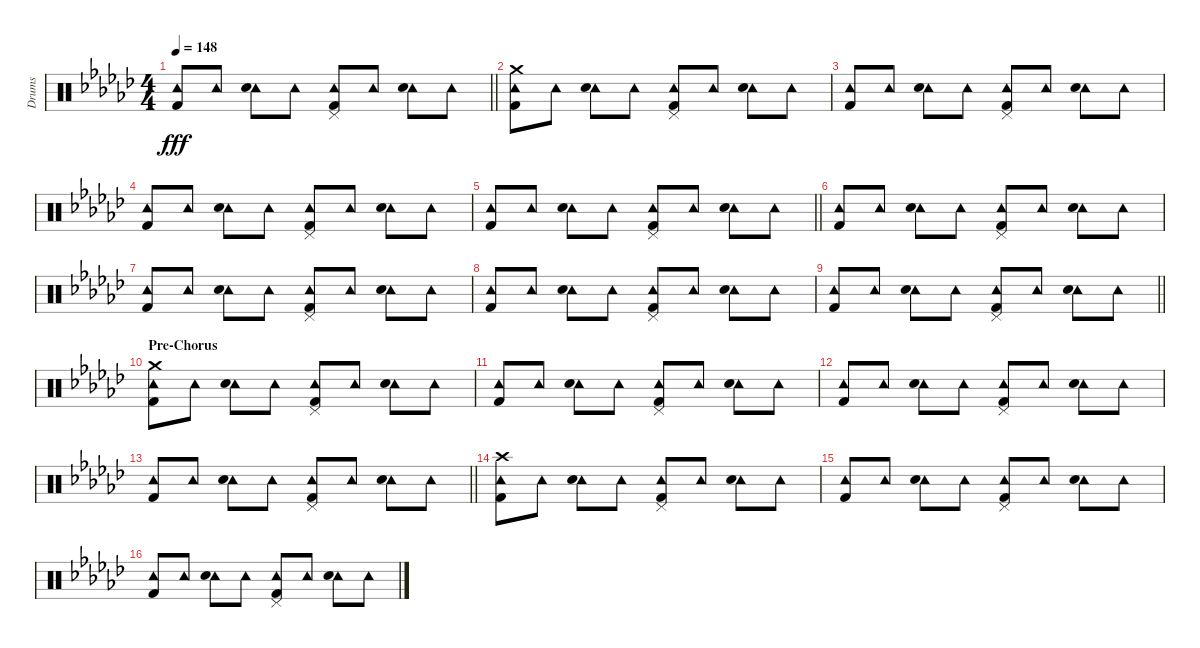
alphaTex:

\track ("Drums" "Drums") {instrument percussion}
\staff {score}
\articulation defaults
\ts (4 4)
\tempo 148
\clef neutral
\barLineRight lightlight
\ks gb
("Tambourine (hit)" "Kick (hit) 2").8{dy fff} "Tambourine (hit)".8 ("Tambourine (hit)" "Electric Snare (hit)").8 "Tambourine (hit)".8 ("Pedal Hi-Hat (hit)" "Tambourine (hit)" "Kick (hit) 2").8 "Tambourine (hit)".8 ("Tambourine (hit)" "Electric Snare (hit)").8 "Tambourine (hit)".8 |
("Crash medium (hit)" "Tambourine (hit)" "Kick (hit) 2").8 "Tambourine (hit)".8 ("Tambourine (hit)" "Electric Snare (hit)").8 "Tambourine (hit)".8 ("Pedal Hi-Hat (hit)" "Tambourine (hit)" "Kick (hit) 2").8 "Tambourine (hit)".8 ("Tambourine (hit)" "Electric Snare (hit)").8 "Tambourine (hit)".8 |
("Tambourine (hit)" "Kick (hit) 2").8 "Tambourine (hit)".8 ("Tambourine (hit)" "Electric Snare (hit)").8 "Tambourine (hit)".8 ("Pedal Hi-Hat (hit)" "Tambourine (hit)" "Kick (hit) 2").8 "Tambourine (hit)".8 ("Tambourine (hit)" "Electric Snare (hit)").8 "Tambourine (hit)".8 |
("Tambourine (hit)" "Kick (hit) 2").8 "Tambourine (hit)".8 ("Tambourine (hit)" "Electric Snare (hit)").8 "Tambourine (hit)".8 ("Pedal Hi-Hat (hit)" "Tambourine (hit)" "Kick (hit) 2").8 "Tambourine (hit)".8 ("Tambourine (hit)" "Electric Snare (hit)").8 "Tambourine (hit)".8 |
\barLineRight lightlight
("Tambourine (hit)" "Kick (hit) 2").8 "Tambourine (hit)".8 ("Tambourine (hit)" "Electric Snare (hit)").8 "Tambourine (hit)".8 ("Pedal Hi-Hat (hit)" "Tambourine (hit)" "Kick (hit) 2").8 "Tambourine (hit)".8 ("Tambourine (hit)" "Electric Snare (hit)").8 "Tambourine (hit)".8 |
("Tambourine (hit)" "Kick (hit) 2").8 "Tambourine (hit)".8 ("Tambourine (hit)" "Electric Snare (hit)").8 "Tambourine (hit)".8 ("Pedal Hi-Hat (hit)" "Tambourine (hit)" "Kick (hit) 2").8 "Tambourine (hit)".8 ("Tambourine (hit)" "Electric Snare (hit)").8 "Tambourine (hit)".8 |
("Tambourine (hit)" "Kick (hit) 2").8 "Tambourine (hit)".8 ("Tambourine (hit)" "Electric Snare (hit)").8 "Tambourine (hit)".8 ("Pedal Hi-Hat (hit)" "Tambourine (hit)" "Kick (hit) 2").8 "Tambourine (hit)".8 ("Tambourine (hit)" "Electric Snare (hit)").8 "Tambourine (hit)".8 |
("Tambourine (hit)" "Kick (hit) 2").8 "Tambourine (hit)".8 ("Tambourine (hit)" "Electric Snare (hit)").8 "Tambourine (hit)".8 ("Pedal Hi-Hat (hit)" "Tambourine (hit)" "Kick (hit) 2").8 "Tambourine (hit)".8 ("Tambourine (hit)" "Electric Snare (hit)").8 "Tambourine (hit)".8 |
\barLineRight lightlight
("Tambourine (hit)" "Kick (hit) 2").8 "Tambourine (hit)".8 ("Tambourine (hit)" "Electric Snare (hit)").8 "Tambourine (hit)".8 ("Pedal Hi-Hat (hit)" "Tambourine (hit)" "Kick (hit) 2").8 "Tambourine (hit)".8 ("Tambourine (hit)" "Electric Snare (hit)").8 "Tambourine (hit)".8 |
\section ("" "Pre-Chorus")
("Crash medium (hit)" "Tambourine (hit)" "Kick (hit) 2").8 "Tambourine (hit)".8 ("Tambourine (hit)" "Electric Snare (hit)").8 "Tambourine (hit)".8 ("Pedal Hi-Hat (hit)" "Tambourine (hit)" "Kick (hit) 2").8 "Tambourine (hit)".8 ("Tambourine (hit)" "Electric Snare (hit)").8 "Tambourine (hit)".8 |
("Tambourine (hit)" "Kick (hit) 2").8 "Tambourine (hit)".8 ("Tambourine (hit)" "Electric Snare (hit)").8 "Tambourine (hit)".8 ("Pedal Hi-Hat (hit)" "Tambourine (hit)" "Kick (hit) 2").8 "Tambourine (hit)".8 ("Tambourine (hit)" "Electric Snare (hit)").8 "Tambourine (hit)".8 |
("Tambourine (hit)" "Kick (hit) 2").8 "Tambourine (hit)".8 ("Tambourine (hit)" "Electric Snare (hit)").8 "Tambourine (hit)".8 ("Pedal Hi-Hat (hit)" "Tambourine (hit)" "Kick (hit) 2").8 "Tambourine (hit)".8 ("Tambourine (hit)" "Electric Snare (hit)").8 "Tambourine (hit)".8 |
\barLineRight lightlight
("Tambourine (hit)" "Kick (hit) 2").8 "Tambourine (hit)".8 ("Tambourine (hit)" "Electric Snare (hit)").8 "Tambourine (hit)".8 ("Pedal Hi-Hat (hit)" "Tambourine (hit)" "Kick (hit) 2").8 "Tambourine (hit)".8 ("Tambourine (hit)" "Electric Snare (hit)").8 "Tambourine (hit)".8 |
("Crash high (hit)" "Tambourine (hit)" "Kick (hit) 2").8 "Tambourine (hit)".8 ("Tambourine (hit)" "Electric Snare (hit)").8 "Tambourine (hit)".8 ("Pedal Hi-Hat (hit)" "Tambourine (hit)" "Kick (hit) 2").8 "Tambourine (hit)".8 ("Tambourine (hit)" "Electric Snare (hit)").8 "Tambourine (hit)".8 |
("Tambourine (hit)" "Kick (hit) 2").8 "Tambourine (hit)".8 ("Tambourine (hit)" "Electric Snare (hit)").8 "Tambourine (hit)".8 ("Pedal Hi-Hat (hit)" "Tambourine (hit)" "Kick (hit) 2").8 "Tambourine (hit)".8 ("Tambourine (hit)" "Electric Snare (hit)").8 "Tambourine (hit)".8 |
("Tambourine (hit)" "Kick (hit) 2").8 "Tambourine (hit)".8 ("Tambourine (hit)" "Electric Snare (hit)").8 "Tambourine (hit)".8 ("Pedal Hi-Hat (hit)" "Tambourine (hit)" "Kick (hit) 2").8 "Tambourine (hit)".8 ("Tambourine (hit)" "Electric Snare (hit)").8 "Tambourine (hit)".8
